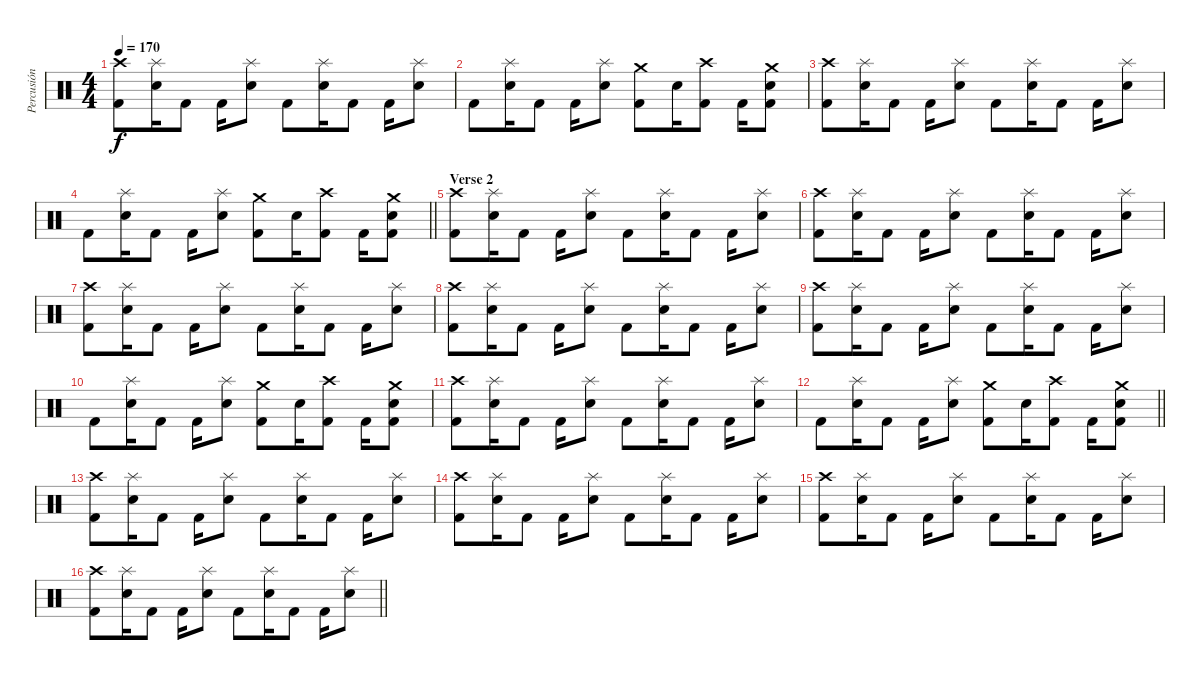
\track ("Percusión" "Percusión") {instrument percussion}
\staff {score}
\articulation defaults
\ts (4 4)
\tempo 170
\clef neutral
\ks c
("Crash high (hit)" "Kick (hit) 2").8{dy f} ("Splash (hit)" "Snare (hit) 2").16 "Kick (hit) 2".8 "Kick (hit) 2".16 ("Splash (hit)" "Snare (hit) 2").8 "Kick (hit) 2".8 ("Splash (hit)" "Snare (hit) 2").16 "Kick (hit) 2".8 "Kick (hit) 2".16 ("Splash (hit)" "Snare (hit) 2").8 |
"Kick (hit) 2".8 ("Splash (hit)" "Snare (hit) 2").16 "Kick (hit) 2".8 "Kick (hit) 2".16 ("Splash (hit)" "Snare (hit) 2").8 ("Crash medium (hit)" "Kick (hit) 2").8 "Snare (hit) 2".16 ("Crash high (hit)" "Kick (hit) 2").8 "Kick (hit) 2".16 ("Crash medium (hit)" "Snare (hit) 2" "Kick (hit) 2").8 |
("Crash high (hit)" "Kick (hit) 2").8 ("Splash (hit)" "Snare (hit) 2").16 "Kick (hit) 2".8 "Kick (hit) 2".16 ("Splash (hit)" "Snare (hit) 2").8 "Kick (hit) 2".8 ("Splash (hit)" "Snare (hit) 2").16 "Kick (hit) 2".8 "Kick (hit) 2".16 ("Splash (hit)" "Snare (hit) 2").8 |
\barLineRight lightlight "Kick (hit) 2".8
("Splash (hit)" "Snare (hit) 2").16 "Kick (hit) 2".8 "Kick (hit) 2".16 ("Splash (hit)" "Snare (hit) 2").8 ("Crash medium (hit)" "Kick (hit) 2").8 "Snare (hit) 2".16 ("Crash high (hit)" "Kick (hit) 2").8 "Kick (hit) 2".16 ("Crash medium (hit)" "Snare (hit) 2" "Kick (hit) 2").8 |
\section ("" "Verse 2")
("Crash high (hit)" "Kick (hit) 2").8 ("Splash (hit)" "Snare (hit) 2").16 "Kick (hit) 2".8 "Kick (hit) 2".16 ("Splash (hit)" "Snare (hit) 2").8 "Kick (hit) 2".8 ("Splash (hit)" "Snare (hit) 2").16 "Kick (hit) 2".8 "Kick (hit) 2".16 ("Splash (hit)" "Snare (hit) 2").8 |
("Crash high (hit)" "Kick (hit) 2").8 ("Splash (hit)" "Snare (hit) 2").16 "Kick (hit) 2".8 "Kick (hit) 2".16 ("Splash (hit)" "Snare (hit) 2").8 "Kick (hit) 2".8 ("Splash (hit)" "Snare (hit) 2").16 "Kick (hit) 2".8 "Kick (hit) 2".16 ("Splash (hit)" "Snare (hit) 2").8 |
("Crash high (hit)" "Kick (hit) 2").8 ("Splash (hit)" "Snare (hit) 2").16 "Kick (hit) 2".8 "Kick (hit) 2".16 ("Splash (hit)" "Snare (hit) 2").8 "Kick (hit) 2".8 ("Splash (hit)" "Snare (hit) 2").16 "Kick (hit) 2".8 "Kick (hit) 2".16 ("Splash (hit)" "Snare (hit) 2").8 |
("Crash high (hit)" "Kick (hit) 2").8 ("Splash (hit)" "Snare (hit) 2").16 "Kick (hit) 2".8 "Kick (hit) 2".16 ("Splash (hit)" "Snare (hit) 2").8 "Kick (hit) 2".8 ("Splash (hit)" "Snare (hit) 2").16 "Kick (hit) 2".8 "Kick (hit) 2".16 ("Splash (hit)" "Snare (hit) 2").8 |
("Crash high (hit)" "Kick (hit) 2").8 ("Splash (hit)" "Snare (hit) 2").16 "Kick (hit) 2".8 "Kick (hit) 2".16 ("Splash (hit)" "Snare (hit) 2").8 "Kick (hit) 2".8 ("Splash (hit)" "Snare (hit) 2").16 "Kick (hit) 2".8 "Kick (hit) 2".16 ("Splash (hit)" "Snare (hit) 2").8 |
"Kick (hit) 2".8 ("Splash (hit)" "Snare (hit) 2").16 "Kick (hit) 2".8 "Kick (hit) 2".16 ("Splash (hit)" "Snare (hit) 2").8 ("Crash medium (hit)" "Kick (hit) 2").8 "Snare (hit) 2".16 ("Crash high (hit)" "Kick (hit) 2").8 "Kick (hit) 2".16 ("Crash medium (hit)" "Snare (hit) 2" "Kick (hit) 2").8 |
("Crash high (hit)" "Kick (hit) 2").8 ("Splash (hit)" "Snare (hit) 2").16 "Kick (hit) 2".8 "Kick (hit) 2".16 ("Splash (hit)" "Snare (hit) 2").8 "Kick (hit) 2".8 ("Splash (hit)" "Snare (hit) 2").16 "Kick (hit) 2".8 "Kick (hit) 2".16 ("Splash (hit)" "Snare (hit) 2").8 |
\barLineRight lightlight "Kick (hit) 2".8
("Splash (hit)" "Snare (hit) 2").16 "Kick (hit) 2".8 "Kick (hit) 2".16 ("Splash (hit)" "Snare (hit) 2").8 ("Crash medium (hit)" "Kick (hit) 2").8 "Snare (hit) 2".16 ("Crash high (hit)" "Kick (hit) 2").8 "Kick (hit) 2".16 ("Crash medium (hit)" "Snare (hit) 2" "Kick (hit) 2").8 |
\section ("" "")
("Crash high (hit)" "Kick (hit) 2").8 ("Splash (hit)" "Snare (hit) 2").16 "Kick (hit) 2".8 "Kick (hit) 2".16 ("Splash (hit)" "Snare (hit) 2").8 "Kick (hit) 2".8 ("Splash (hit)" "Snare (hit) 2").16 "Kick (hit) 2".8 "Kick (hit) 2".16 ("Splash (hit)" "Snare (hit) 2").8 |
("Crash high (hit)" "Kick (hit) 2").8 ("Splash (hit)" "Snare (hit) 2").16 "Kick (hit) 2".8 "Kick (hit) 2".16 ("Splash (hit)" "Snare (hit) 2").8 "Kick (hit) 2".8 ("Splash (hit)" "Snare (hit) 2").16 "Kick (hit) 2".8 "Kick (hit) 2".16 ("Splash (hit)" "Snare (hit) 2").8 |
("Crash high (hit)" "Kick (hit) 2").8 ("Splash (hit)" "Snare (hit) 2").16 "Kick (hit) 2".8 "Kick (hit) 2".16 ("Splash (hit)" "Snare (hit) 2").8 "Kick (hit) 2".8 ("Splash (hit)" "Snare (hit) 2").16 "Kick (hit) 2".8 "Kick (hit) 2".16 ("Splash (hit)" "Snare (hit) 2").8 |
\barLineRight lightlight
("Crash high (hit)" "Kick (hit) 2").8 ("Splash (hit)" "Snare (hit) 2").16 "Kick (hit) 2".8 "Kick (hit) 2".16 ("Splash (hit)" "Snare (hit) 2").8 "Kick (hit) 2".8 ("Splash (hit)" "Snare (hit) 2").16 "Kick (hit) 2".8 "Kick (hit) 2".16 ("Splash (hit)" "Snare (hit) 2").8
